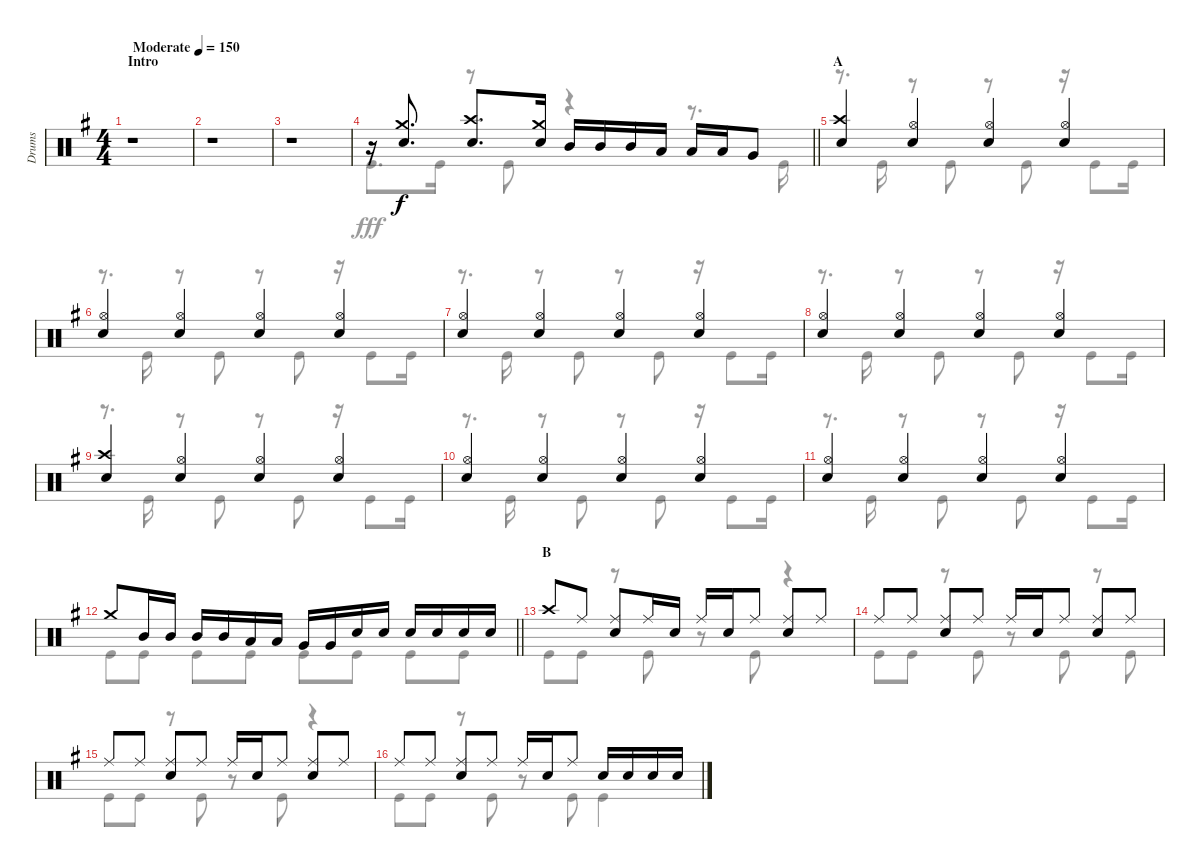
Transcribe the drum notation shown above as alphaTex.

\track ("Drums" "Drums") {instrument percussion}
\staff {score}
\articulation defaults
\voice
\ts (4 4)
\section ("" "Intro")
\tempo (150 "Moderate")
\clef neutral
\ks g
r.1{dy f} |
r.1 |
r.1 |
\barLineRight lightlight
r.16 ("Crash medium (hit)" "Snare (hit) 2").8{d} ("Crash high (hit)" "Snare (hit) 2").8{d} ("Crash medium (hit)" "Snare (hit) 2").16 "Mid Tom (hit)".16 "Mid Tom (hit)".16 "Mid Tom (hit)".16 "Low Tom (hit)".16 "Low Tom (hit)".16 "Low Tom (hit)".16 "Very Low Tom (hit)".8 |
\section ("" "A")
("Crash high (hit)" "Snare (hit) 2").4 ("Hi-Hat (open)" "Snare (hit) 2").4 ("Hi-Hat (open)" "Snare (hit) 2").4 ("Hi-Hat (open)" "Snare (hit) 2").4 |
("Hi-Hat (open)" "Snare (hit) 2").4 ("Hi-Hat (open)" "Snare (hit) 2").4 ("Hi-Hat (open)" "Snare (hit) 2").4 ("Hi-Hat (open)" "Snare (hit) 2").4 |
("Hi-Hat (open)" "Snare (hit) 2").4 ("Hi-Hat (open)" "Snare (hit) 2").4 ("Hi-Hat (open)" "Snare (hit) 2").4 ("Hi-Hat (open)" "Snare (hit) 2").4 |
("Hi-Hat (open)" "Snare (hit) 2").4 ("Hi-Hat (open)" "Snare (hit) 2").4 ("Hi-Hat (open)" "Snare (hit) 2").4 ("Hi-Hat (open)" "Snare (hit) 2").4 |
("Crash high (hit)" "Snare (hit) 2").4 ("Hi-Hat (open)" "Snare (hit) 2").4 ("Hi-Hat (open)" "Snare (hit) 2").4 ("Hi-Hat (open)" "Snare (hit) 2").4 |
("Hi-Hat (open)" "Snare (hit) 2").4 ("Hi-Hat (open)" "Snare (hit) 2").4 ("Hi-Hat (open)" "Snare (hit) 2").4 ("Hi-Hat (open)" "Snare (hit) 2").4 |
("Hi-Hat (open)" "Snare (hit) 2").4 ("Hi-Hat (open)" "Snare (hit) 2").4 ("Hi-Hat (open)" "Snare (hit) 2").4 ("Hi-Hat (open)" "Snare (hit) 2").4 |
\barLineRight lightlight "Crash medium (hit)".8 "Mid Tom (hit)".16 "Mid Tom (hit)".16 "Mid Tom (hit)".16 "Mid Tom (hit)".16 "Low Tom (hit)".16 "Low Tom (hit)".16 "Very Low Tom (hit)".16 "Very Low Tom (hit)".16 "Snare (hit) 2".16 "Snare (hit) 2".16 "Snare (hit) 2".16 "Snare (hit) 2".16 "Snare (hit) 2".16 "Snare (hit) 2".16
|
\section ("" "B")
"Crash high (hit)".8 "Ride (middle)".8 ("Ride (middle)" "Snare (hit) 2").8 "Ride (middle)".16 "Snare (hit) 2".16 "Ride (middle)".16 "Snare (hit) 2".16 "Ride (middle)".8 ("Ride (middle)" "Snare (hit) 2").8 "Ride (middle)".8 |
"Ride (middle)".8 "Ride (middle)".8 ("Ride (middle)" "Snare (hit) 2").8 "Ride (middle)".8 "Ride (middle)".16 "Snare (hit) 2".16 "Ride (middle)".8 ("Ride (middle)" "Snare (hit) 2").8 "Ride (middle)".8 |
"Ride (middle)".8 "Ride (middle)".8 ("Ride (middle)" "Snare (hit) 2").8 "Ride (middle)".8 "Ride (middle)".16 "Snare (hit) 2".16 "Ride (middle)".8 ("Ride (middle)" "Snare (hit) 2").8 "Ride (middle)".8 |
"Ride (middle)".8 "Ride (middle)".8 ("Ride (middle)" "Snare (hit) 2").8 "Ride (middle)".8 "Ride (middle)".16 "Snare (hit) 2".16 "Ride (middle)".8 "Snare (hit) 2".16 "Snare (hit) 2".16 "Snare (hit) 2".16 "Snare (hit) 2".16
\voice
\clef neutral
\ottava regular
\simile none
\ks g
r.1{dy fff} |
r.1 |
r.1 |
\barLineRight lightlight "Kick (hit)".8{d} "Kick (hit)".16
r.8 "Kick (hit)".8 r.4 r.8{d} "Kick (hit)".16 |
r.8{d} "Kick (hit)".16 r.8 "Kick (hit)".8 r.8 "Kick (hit)".8 r.16 "Kick (hit)".8 "Kick (hit)".16 |
r.8{d} "Kick (hit)".16 r.8 "Kick (hit)".8 r.8 "Kick (hit)".8 r.16 "Kick (hit)".8 "Kick (hit)".16 |
r.8{d} "Kick (hit)".16 r.8 "Kick (hit)".8 r.8 "Kick (hit)".8 r.16 "Kick (hit)".8 "Kick (hit)".16 |
r.8{d} "Kick (hit)".16 r.8 "Kick (hit)".8 r.8 "Kick (hit)".8 r.16 "Kick (hit)".8 "Kick (hit)".16 |
r.8{d} "Kick (hit)".16 r.8 "Kick (hit)".8 r.8 "Kick (hit)".8 r.16 "Kick (hit)".8 "Kick (hit)".16 |
r.8{d} "Kick (hit)".16 r.8 "Kick (hit)".8 r.8 "Kick (hit)".8 r.16 "Kick (hit)".8 "Kick (hit)".16 |
r.8{d} "Kick (hit)".16 r.8 "Kick (hit)".8 r.8 "Kick (hit)".8 r.16 "Kick (hit)".8 "Kick (hit)".16 |
\barLineRight lightlight "Kick (hit)".8 "Kick (hit)".8 "Kick (hit)".8 "Kick (hit)".8 "Kick (hit)".8 "Kick (hit)".8 "Kick (hit)".8 "Kick (hit)".8
|
"Kick (hit)".8 "Kick (hit)".8 r.8 "Kick (hit)".8 r.8 "Kick (hit)".8 r.4 |
"Kick (hit)".8 "Kick (hit)".8 r.8 "Kick (hit)".8 r.8 "Kick (hit)".8 r.8 "Kick (hit)".8 |
"Kick (hit)".8 "Kick (hit)".8 r.8 "Kick (hit)".8 r.8 "Kick (hit)".8 r.4 |
"Kick (hit)".8 "Kick (hit)".8 r.8 "Kick (hit)".8 r.8 "Kick (hit)".8 "Kick (hit)".4
